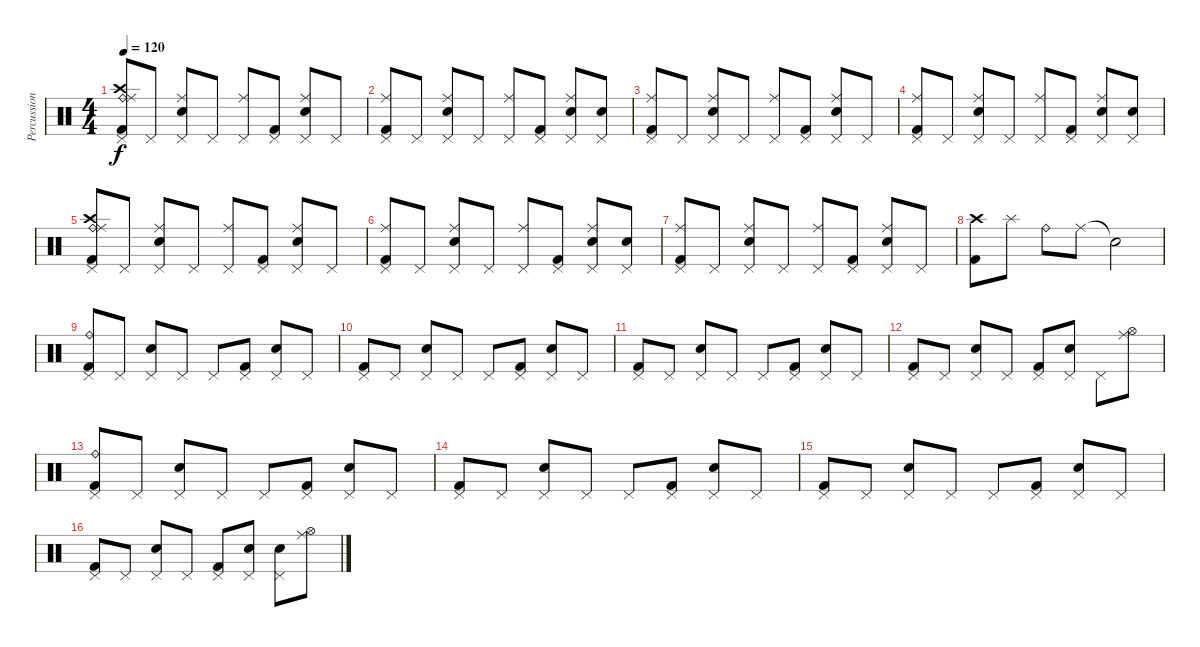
\track ("Percussion" "Percussion") {instrument percussion}
\staff {score}
\articulation defaults
\ts (4 4)
\tempo 120
\clef neutral
\ks c
("Pedal Hi-Hat (hit)" "Kick (hit) 2" "Crash high (hit)" "Ride (bell)" "Ride (middle)").8{dy f} "Pedal Hi-Hat (hit)".8 ("Pedal Hi-Hat (hit)" "Electric Snare (hit)" "Ride (middle)").8 "Pedal Hi-Hat (hit)".8 ("Pedal Hi-Hat (hit)" "Ride (middle)").8 ("Pedal Hi-Hat (hit)" "Kick (hit) 2").8 ("Pedal Hi-Hat (hit)" "Electric Snare (hit)" "Ride (middle)").8 "Pedal Hi-Hat (hit)".8 |
("Pedal Hi-Hat (hit)" "Kick (hit) 2" "Ride (middle)").8 "Pedal Hi-Hat (hit)".8 ("Pedal Hi-Hat (hit)" "Electric Snare (hit)" "Ride (middle)").8 "Pedal Hi-Hat (hit)".8 ("Pedal Hi-Hat (hit)" "Ride (middle)").8 ("Pedal Hi-Hat (hit)" "Kick (hit) 2").8 ("Pedal Hi-Hat (hit)" "Electric Snare (hit)" "Ride (middle)").8 ("Pedal Hi-Hat (hit)" "Electric Snare (hit)").8 |
("Pedal Hi-Hat (hit)" "Kick (hit) 2" "Ride (middle)").8 "Pedal Hi-Hat (hit)".8 ("Pedal Hi-Hat (hit)" "Electric Snare (hit)" "Ride (middle)").8 "Pedal Hi-Hat (hit)".8 ("Pedal Hi-Hat (hit)" "Ride (middle)").8 ("Pedal Hi-Hat (hit)" "Kick (hit) 2").8 ("Pedal Hi-Hat (hit)" "Electric Snare (hit)" "Ride (middle)").8 "Pedal Hi-Hat (hit)".8 |
("Pedal Hi-Hat (hit)" "Kick (hit) 2" "Ride (middle)").8 "Pedal Hi-Hat (hit)".8 ("Pedal Hi-Hat (hit)" "Electric Snare (hit)" "Ride (middle)").8 "Pedal Hi-Hat (hit)".8 ("Pedal Hi-Hat (hit)" "Ride (middle)").8 ("Pedal Hi-Hat (hit)" "Kick (hit) 2").8 ("Pedal Hi-Hat (hit)" "Electric Snare (hit)" "Ride (middle)").8 ("Pedal Hi-Hat (hit)" "Electric Snare (hit)").8 |
("Pedal Hi-Hat (hit)" "Kick (hit) 2" "Crash high (hit)" "Ride (bell)" "Ride (middle)").8 "Pedal Hi-Hat (hit)".8 ("Pedal Hi-Hat (hit)" "Electric Snare (hit)" "Ride (middle)").8 "Pedal Hi-Hat (hit)".8 ("Pedal Hi-Hat (hit)" "Ride (middle)").8 ("Pedal Hi-Hat (hit)" "Kick (hit) 2").8 ("Pedal Hi-Hat (hit)" "Electric Snare (hit)" "Ride (middle)").8 "Pedal Hi-Hat (hit)".8 |
("Pedal Hi-Hat (hit)" "Kick (hit) 2" "Ride (middle)").8 "Pedal Hi-Hat (hit)".8 ("Pedal Hi-Hat (hit)" "Electric Snare (hit)" "Ride (middle)").8 "Pedal Hi-Hat (hit)".8 ("Pedal Hi-Hat (hit)" "Ride (middle)").8 ("Pedal Hi-Hat (hit)" "Kick (hit) 2").8 ("Pedal Hi-Hat (hit)" "Electric Snare (hit)" "Ride (middle)").8 ("Pedal Hi-Hat (hit)" "Electric Snare (hit)").8 |
("Pedal Hi-Hat (hit)" "Kick (hit) 2" "Ride (middle)").8 "Pedal Hi-Hat (hit)".8 ("Pedal Hi-Hat (hit)" "Electric Snare (hit)" "Ride (middle)").8 "Pedal Hi-Hat (hit)".8 ("Pedal Hi-Hat (hit)" "Ride (middle)").8 ("Pedal Hi-Hat (hit)" "Kick (hit) 2").8 ("Pedal Hi-Hat (hit)" "Electric Snare (hit)" "Ride (middle)").8 "Pedal Hi-Hat (hit)".8 |
("Kick (hit) 2" "Crash high (hit)").8 "Splash (hit)".8 "Ride (bell)".8 "Ride (middle)".8 "Snare (hit)"{t}.2 |
("Pedal Hi-Hat (hit)" "Kick (hit) 2" "Ride (bell)").8 "Pedal Hi-Hat (hit)".8 ("Pedal Hi-Hat (hit)" "Electric Snare (hit)").8 "Pedal Hi-Hat (hit)".8 "Pedal Hi-Hat (hit)".8 ("Pedal Hi-Hat (hit)" "Kick (hit) 2").8 ("Pedal Hi-Hat (hit)" "Electric Snare (hit)").8 "Pedal Hi-Hat (hit)".8 |
("Pedal Hi-Hat (hit)" "Kick (hit) 2").8 "Pedal Hi-Hat (hit)".8 ("Pedal Hi-Hat (hit)" "Electric Snare (hit)").8 "Pedal Hi-Hat (hit)".8 "Pedal Hi-Hat (hit)".8 ("Pedal Hi-Hat (hit)" "Kick (hit) 2").8 ("Pedal Hi-Hat (hit)" "Electric Snare (hit)").8 "Pedal Hi-Hat (hit)".8 |
("Pedal Hi-Hat (hit)" "Kick (hit) 2").8 "Pedal Hi-Hat (hit)".8 ("Pedal Hi-Hat (hit)" "Electric Snare (hit)").8 "Pedal Hi-Hat (hit)".8 "Pedal Hi-Hat (hit)".8 ("Pedal Hi-Hat (hit)" "Kick (hit) 2").8 ("Pedal Hi-Hat (hit)" "Electric Snare (hit)").8 "Pedal Hi-Hat (hit)".8 |
("Pedal Hi-Hat (hit)" "Kick (hit) 2").8 "Pedal Hi-Hat (hit)".8 ("Pedal Hi-Hat (hit)" "Electric Snare (hit)").8 "Pedal Hi-Hat (hit)".8 ("Pedal Hi-Hat (hit)" "Kick (hit) 2").8 ("Pedal Hi-Hat (hit)" "Electric Snare (hit)").8 "Pedal Hi-Hat (hit)".8 ("Hi-Hat (open)" "Ride (middle)").8 |
("Pedal Hi-Hat (hit)" "Kick (hit) 2" "Ride (bell)").8 "Pedal Hi-Hat (hit)".8 ("Pedal Hi-Hat (hit)" "Electric Snare (hit)").8 "Pedal Hi-Hat (hit)".8 "Pedal Hi-Hat (hit)".8 ("Pedal Hi-Hat (hit)" "Kick (hit) 2").8 ("Pedal Hi-Hat (hit)" "Electric Snare (hit)").8 "Pedal Hi-Hat (hit)".8 |
("Pedal Hi-Hat (hit)" "Kick (hit) 2").8 "Pedal Hi-Hat (hit)".8 ("Pedal Hi-Hat (hit)" "Electric Snare (hit)").8 "Pedal Hi-Hat (hit)".8 "Pedal Hi-Hat (hit)".8 ("Pedal Hi-Hat (hit)" "Kick (hit) 2").8 ("Pedal Hi-Hat (hit)" "Electric Snare (hit)").8 "Pedal Hi-Hat (hit)".8 |
("Pedal Hi-Hat (hit)" "Kick (hit) 2").8 "Pedal Hi-Hat (hit)".8 ("Pedal Hi-Hat (hit)" "Electric Snare (hit)").8 "Pedal Hi-Hat (hit)".8 "Pedal Hi-Hat (hit)".8 ("Pedal Hi-Hat (hit)" "Kick (hit) 2").8 ("Pedal Hi-Hat (hit)" "Electric Snare (hit)").8 "Pedal Hi-Hat (hit)".8 |
("Pedal Hi-Hat (hit)" "Kick (hit) 2").8 "Pedal Hi-Hat (hit)".8 ("Pedal Hi-Hat (hit)" "Electric Snare (hit)").8 "Pedal Hi-Hat (hit)".8 ("Pedal Hi-Hat (hit)" "Kick (hit) 2").8 ("Pedal Hi-Hat (hit)" "Electric Snare (hit)").8 ("Pedal Hi-Hat (hit)" "Electric Snare (hit)").8 ("Hi-Hat (open)" "Ride (middle)").8
